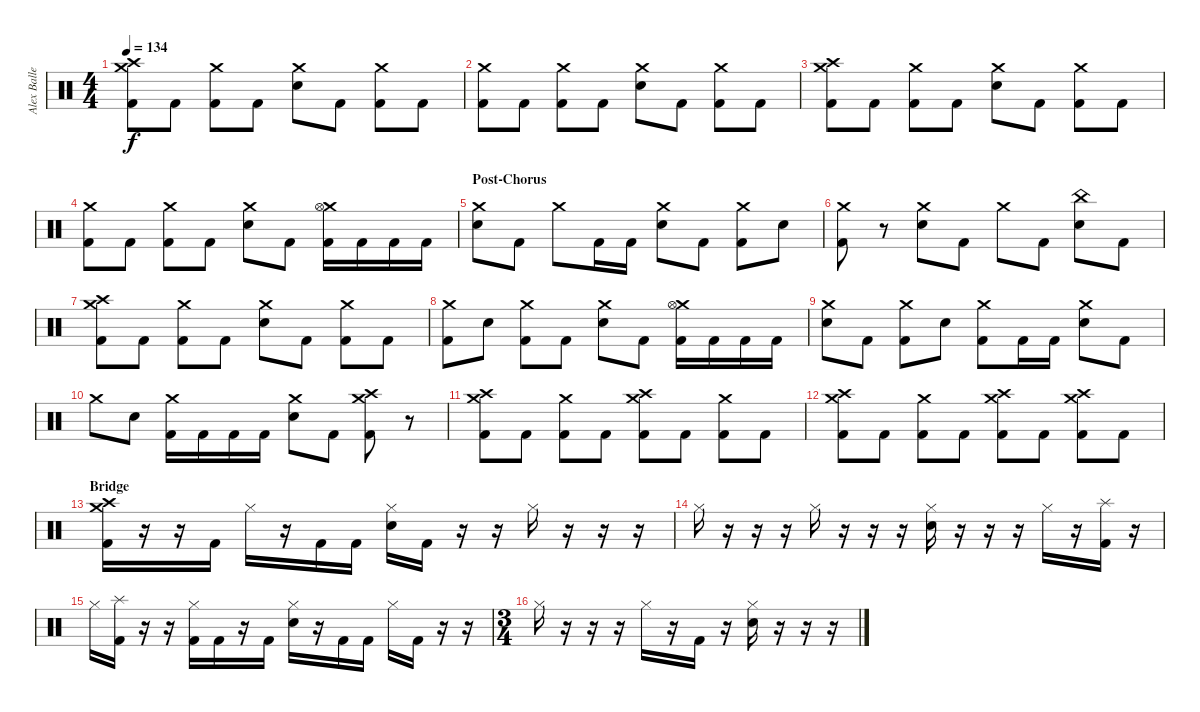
\track ("Alex Ballew" "Alex Balle") {instrument percussion}
\staff {score}
\articulation defaults
\ts (4 4)
\tempo 134
\clef neutral
\ks c
("Crash medium (hit)" "Crash high (hit)" "Kick (hit) 2").8{dy f} "Kick (hit) 2".8 ("Crash medium (hit)" "Kick (hit) 2").8 "Kick (hit) 2".8 ("Crash medium (hit)" "Electric Snare (hit)").8 "Kick (hit) 2".8 ("Crash medium (hit)" "Kick (hit) 2").8 "Kick (hit) 2".8 |
("Crash medium (hit)" "Kick (hit) 2").8 "Kick (hit) 2".8 ("Crash medium (hit)" "Kick (hit) 2").8 "Kick (hit) 2".8 ("Crash medium (hit)" "Electric Snare (hit)").8 "Kick (hit) 2".8 ("Crash medium (hit)" "Kick (hit) 2").8 "Kick (hit) 2".8 |
("Crash medium (hit)" "Crash high (hit)" "Kick (hit) 2").8 "Kick (hit) 2".8 ("Crash medium (hit)" "Kick (hit) 2").8 "Kick (hit) 2".8 ("Crash medium (hit)" "Electric Snare (hit)").8 "Kick (hit) 2".8 ("Crash medium (hit)" "Kick (hit) 2").8 "Kick (hit) 2".8 |
("Crash medium (hit)" "Kick (hit) 2").8 "Kick (hit) 2".8 ("Crash medium (hit)" "Kick (hit) 2").8 "Kick (hit) 2".8 ("Crash medium (hit)" "Electric Snare (hit)").8 "Kick (hit) 2".8 ("Crash medium (hit)" "Hi-Hat (open)" "Kick (hit) 2").16 "Kick (hit) 2".16 "Kick (hit) 2".16 "Kick (hit) 2".16 |
\section ("" "Post-Chorus")
("Crash medium (hit)" "Electric Snare (hit)").8 "Kick (hit) 2".8 "Crash medium (hit)".8 "Kick (hit) 2".16 "Kick (hit) 2".16 ("Crash medium (hit)" "Electric Snare (hit)").8 "Kick (hit) 2".8 ("Crash medium (hit)" "Kick (hit) 2").8 "Electric Snare (hit)".8 |
("Crash medium (hit)" "Kick (hit) 2").8 r.8 ("Crash medium (hit)" "Electric Snare (hit)").8 "Kick (hit) 2".8 "Crash medium (hit)".8 "Kick (hit) 2".8 ("China (hit)" "Electric Snare (hit)").8 "Kick (hit) 2".8 |
("Crash medium (hit)" "Crash high (hit)" "Kick (hit) 2").8 "Kick (hit) 2".8 ("Crash medium (hit)" "Kick (hit) 2").8 "Kick (hit) 2".8 ("Crash medium (hit)" "Electric Snare (hit)").8 "Kick (hit) 2".8 ("Crash medium (hit)" "Kick (hit) 2").8 "Kick (hit) 2".8 |
("Crash medium (hit)" "Kick (hit) 2").8 "Electric Snare (hit)".8 ("Crash medium (hit)" "Kick (hit) 2").8 "Kick (hit) 2".8 ("Crash medium (hit)" "Electric Snare (hit)").8 "Kick (hit) 2".8 ("Crash medium (hit)" "Hi-Hat (open)" "Kick (hit) 2").16 "Kick (hit) 2".16 "Kick (hit) 2".16 "Kick (hit) 2".16 |
("Crash medium (hit)" "Electric Snare (hit)").8 "Kick (hit) 2".8 ("Crash medium (hit)" "Kick (hit) 2").8 "Electric Snare (hit)".8 ("Crash medium (hit)" "Kick (hit) 2").8 "Kick (hit) 2".16 "Kick (hit) 2".16 ("Crash medium (hit)" "Electric Snare (hit)").8 "Kick (hit) 2".8 |
"Crash medium (hit)".8 "Electric Snare (hit)".8 ("Crash medium (hit)" "Kick (hit) 2").16 "Kick (hit) 2".16 "Kick (hit) 2".16 "Kick (hit) 2".16 ("Crash medium (hit)" "Electric Snare (hit)").8 "Kick (hit) 2".8 ("Crash medium (hit)" "Crash high (hit)" "Kick (hit) 2").8 r.8 |
("Crash medium (hit)" "Crash high (hit)" "Kick (hit) 2").8 "Kick (hit) 2".8 ("Crash medium (hit)" "Kick (hit) 2").8 "Kick (hit) 2".8 ("Crash medium (hit)" "Crash high (hit)" "Kick (hit) 2").8 "Kick (hit) 2".8 ("Crash medium (hit)" "Kick (hit) 2").8 "Kick (hit) 2".8 |
("Crash medium (hit)" "Crash high (hit)" "Kick (hit) 2").8 "Kick (hit) 2".8 ("Crash medium (hit)" "Kick (hit) 2").8 "Kick (hit) 2".8 ("Crash medium (hit)" "Crash high (hit)" "Kick (hit) 2").8 "Kick (hit) 2".8 ("Crash medium (hit)" "Crash high (hit)" "Kick (hit) 2").8 "Kick (hit) 2".8 |
\section ("" "Bridge")
("Crash medium (hit)" "Crash high (hit)" "Kick (hit) 2").16 r.16 r.16 "Kick (hit) 2".16 "Hi-Hat (closed)".16 r.16 "Kick (hit) 2".16 "Kick (hit) 2".16 ("Hi-Hat (closed)" "Electric Snare (hit)").16 "Kick (hit) 2".16 r.16 r.16 "Hi-Hat (closed)".16 r.16 r.16 r.16 |
"Hi-Hat (closed)".16 r.16 r.16 r.16 "Hi-Hat (closed)".16 r.16 r.16 r.16 ("Hi-Hat (closed)" "Electric Snare (hit)").16 r.16 r.16 r.16 "Hi-Hat (closed)".16 r.16 ("Splash (hit)" "Kick (hit) 2").16 r.16 |
"Hi-Hat (closed)".16 ("Splash (hit)" "Kick (hit) 2").16 r.16 r.16 ("Hi-Hat (closed)" "Kick (hit) 2").16 "Kick (hit) 2".16 r.16 "Kick (hit) 2".16 ("Hi-Hat (closed)" "Electric Snare (hit)").16 r.16 "Kick (hit) 2".16 "Kick (hit) 2".16 "Hi-Hat (closed)".16 "Kick (hit) 2".16 r.16 r.16 |
\ts (3 4)
"Hi-Hat (closed)".16 r.16 r.16 r.16 "Hi-Hat (closed)".16 r.16 "Kick (hit) 2".16 r.16 ("Hi-Hat (closed)" "Electric Snare (hit)").16 r.16 r.16 r.16
